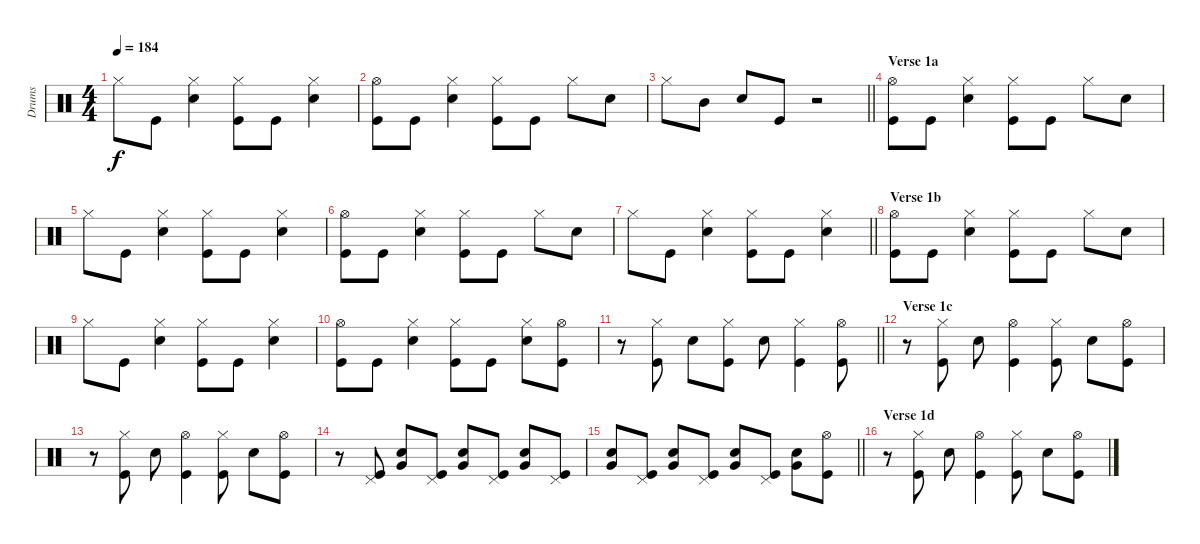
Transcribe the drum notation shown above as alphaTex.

\track (" Drums" " Drums") {instrument percussion}
\staff {score}
\articulation defaults
\ts (4 4)
\tempo 184
\clef neutral
\ks c "Hi-Hat (closed)".8{dy f} "Kick (hit)".8
("Snare (hit) 2" "Hi-Hat (closed)").4 ("Kick (hit)" "Hi-Hat (closed)").8 "Kick (hit)".8 ("Snare (hit) 2" "Hi-Hat (closed)").4 |
("Hi-Hat (open)" "Kick (hit)").8 "Kick (hit)".8 ("Hi-Hat (closed)" "Snare (hit) 2").4 ("Hi-Hat (closed)" "Kick (hit)").8 "Kick (hit)".8 "Hi-Hat (closed)".8 "Snare (hit) 2".8 |
\barLineRight lightlight "Hi-Hat (closed)".8 "Mid Tom (hit)".8 "Snare (hit) 2".8 "Kick (hit)".8
r.2 |
\section ("" "Verse 1a")
("Hi-Hat (open)" "Kick (hit)").8 "Kick (hit)".8 ("Hi-Hat (closed)" "Snare (hit) 2").4 ("Hi-Hat (closed)" "Kick (hit)").8 "Kick (hit)".8 "Hi-Hat (closed)".8 "Snare (hit) 2".8 |
"Hi-Hat (closed)".8 "Kick (hit)".8 ("Snare (hit) 2" "Hi-Hat (closed)").4 ("Kick (hit)" "Hi-Hat (closed)").8 "Kick (hit)".8 ("Snare (hit) 2" "Hi-Hat (closed)").4 |
("Hi-Hat (open)" "Kick (hit)").8 "Kick (hit)".8 ("Hi-Hat (closed)" "Snare (hit) 2").4 ("Hi-Hat (closed)" "Kick (hit)").8 "Kick (hit)".8 "Hi-Hat (closed)".8 "Snare (hit) 2".8 |
\barLineRight lightlight "Hi-Hat (closed)".8 "Kick (hit)".8
("Snare (hit) 2" "Hi-Hat (closed)").4 ("Kick (hit)" "Hi-Hat (closed)").8 "Kick (hit)".8 ("Snare (hit) 2" "Hi-Hat (closed)").4 |
\section ("" "Verse 1b")
("Hi-Hat (open)" "Kick (hit)").8 "Kick (hit)".8 ("Hi-Hat (closed)" "Snare (hit) 2").4 ("Hi-Hat (closed)" "Kick (hit)").8 "Kick (hit)".8 "Hi-Hat (closed)".8 "Snare (hit) 2".8 |
"Hi-Hat (closed)".8 "Kick (hit)".8 ("Snare (hit) 2" "Hi-Hat (closed)").4 ("Kick (hit)" "Hi-Hat (closed)").8 "Kick (hit)".8 ("Snare (hit) 2" "Hi-Hat (closed)").4 |
("Hi-Hat (open)" "Kick (hit)").8 "Kick (hit)".8 ("Hi-Hat (closed)" "Snare (hit) 2").4 ("Hi-Hat (closed)" "Kick (hit)").8 "Kick (hit)".8 ("Hi-Hat (closed)" "Snare (hit) 2").8 ("Kick (hit)" "Hi-Hat (open)").8 |
\barLineRight lightlight
r.8 ("Kick (hit)" "Hi-Hat (closed)").8 "Snare (hit) 2".8 ("Kick (hit)" "Hi-Hat (closed)").8 "Snare (hit) 2".8 ("Hi-Hat (closed)" "Kick (hit)").4 ("Kick (hit)" "Hi-Hat (open)").8 |
\section ("" "Verse 1c")
r.8 ("Kick (hit)" "Hi-Hat (closed)").8 "Snare (hit) 2".8 ("Kick (hit)" "Hi-Hat (open)").4 ("Kick (hit)" "Hi-Hat (closed)").8 "Snare (hit) 2".8 ("Kick (hit)" "Hi-Hat (open)").8 |
r.8 ("Kick (hit)" "Hi-Hat (closed)").8 "Snare (hit) 2".8 ("Kick (hit)" "Hi-Hat (open)").4 ("Kick (hit)" "Hi-Hat (closed)").8 "Snare (hit) 2".8 ("Kick (hit)" "Hi-Hat (open)").8 |
r.8 ("Pedal Hi-Hat (hit)" "Kick (hit)").8 ("Snare (hit) 2" "Very Low Tom (hit)").8 ("Kick (hit)" "Pedal Hi-Hat (hit)").8 ("Snare (hit) 2" "Very Low Tom (hit)").8 ("Kick (hit)" "Pedal Hi-Hat (hit)").8 ("Snare (hit) 2" "Very Low Tom (hit)").8 ("Kick (hit)" "Pedal Hi-Hat (hit)").8 |
\barLineRight lightlight
("Snare (hit) 2" "Very Low Tom (hit)").8 ("Kick (hit)" "Pedal Hi-Hat (hit)").8 ("Snare (hit) 2" "Very Low Tom (hit)").8 ("Kick (hit)" "Pedal Hi-Hat (hit)").8 ("Snare (hit) 2" "Very Low Tom (hit)").8 ("Kick (hit)" "Pedal Hi-Hat (hit)").8 ("Snare (hit) 2" "Very Low Tom (hit)").8 ("Kick (hit)" "Hi-Hat (open)").8 |
\section ("" "Verse 1d")
r.8 ("Kick (hit)" "Hi-Hat (closed)").8 "Snare (hit) 2".8 ("Kick (hit)" "Hi-Hat (open)").4 ("Kick (hit)" "Hi-Hat (closed)").8 "Snare (hit) 2".8 ("Kick (hit)" "Hi-Hat (open)").8
